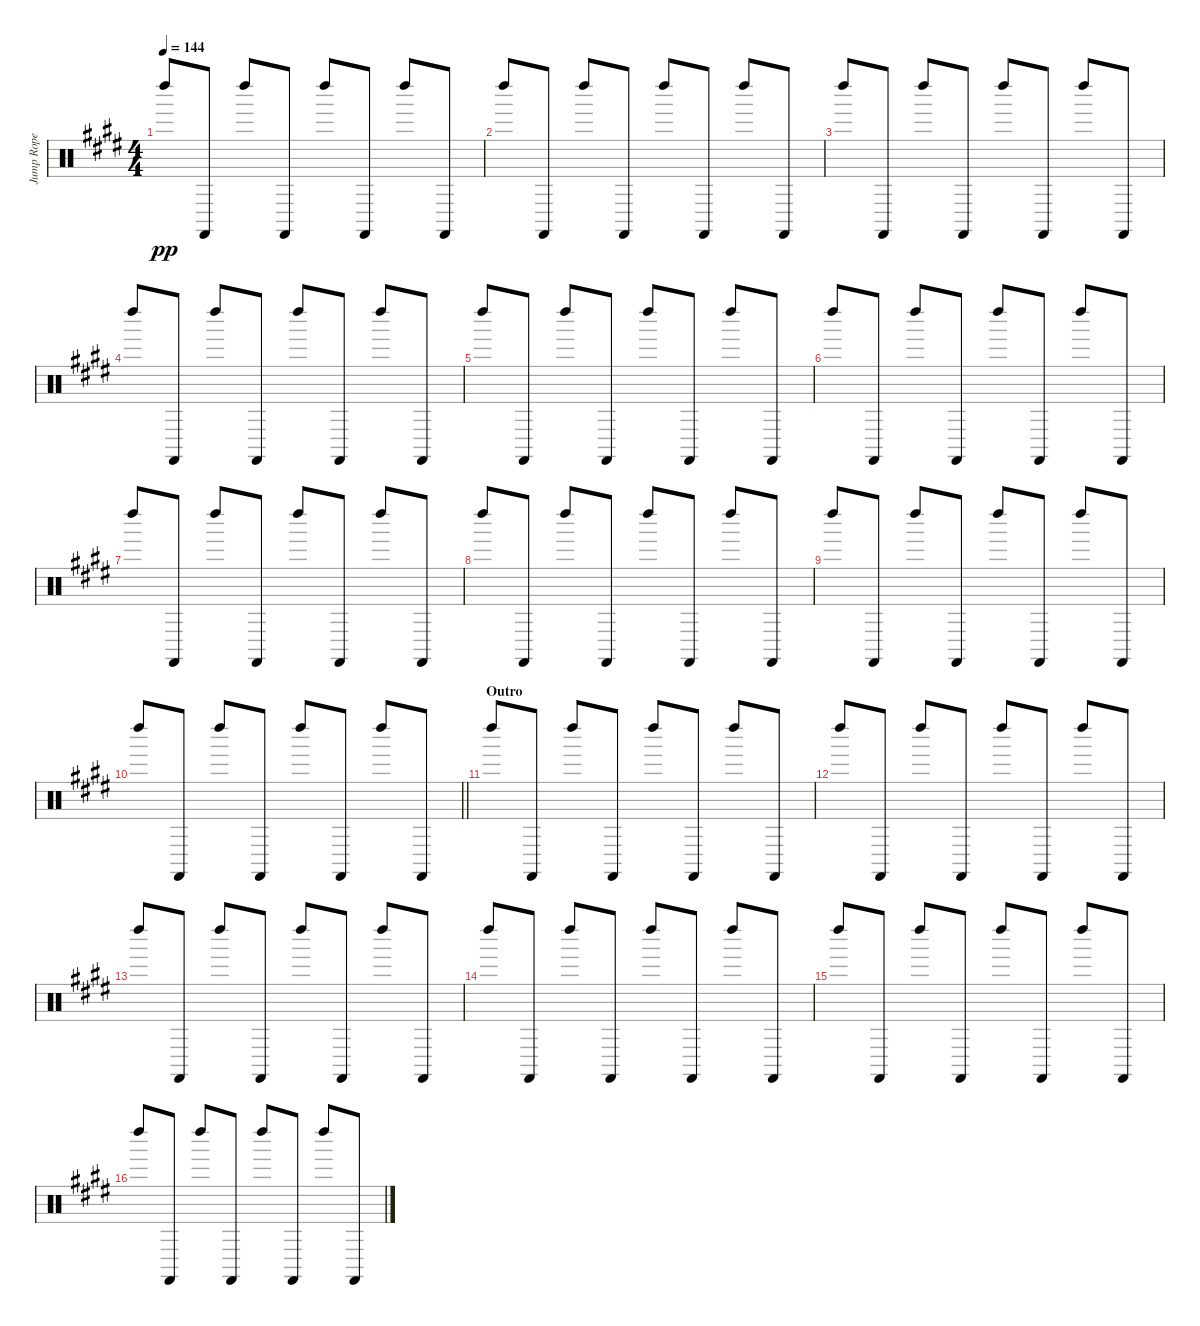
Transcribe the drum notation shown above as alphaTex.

\track ("Jump Rope" "Jump Rope") {instrument percussion}
\staff {score}
\articulation defaults
\ts (4 4)
\tempo 144
\clef neutral
\ks e "Left Maraca (hit)".8{dy pp} "Castanets (hit)".8 "Left Maraca (hit)".8 "Castanets (hit)".8 "Left Maraca (hit)".8 "Castanets (hit)".8 "Left Maraca (hit)".8 "Castanets (hit)".8
|
"Left Maraca (hit)".8 "Castanets (hit)".8 "Left Maraca (hit)".8 "Castanets (hit)".8 "Left Maraca (hit)".8 "Castanets (hit)".8 "Left Maraca (hit)".8 "Castanets (hit)".8 |
"Left Maraca (hit)".8 "Castanets (hit)".8 "Left Maraca (hit)".8 "Castanets (hit)".8 "Left Maraca (hit)".8 "Castanets (hit)".8 "Left Maraca (hit)".8 "Castanets (hit)".8 |
"Left Maraca (hit)".8 "Castanets (hit)".8 "Left Maraca (hit)".8 "Castanets (hit)".8 "Left Maraca (hit)".8 "Castanets (hit)".8 "Left Maraca (hit)".8 "Castanets (hit)".8 |
"Left Maraca (hit)".8 "Castanets (hit)".8 "Left Maraca (hit)".8 "Castanets (hit)".8 "Left Maraca (hit)".8 "Castanets (hit)".8 "Left Maraca (hit)".8 "Castanets (hit)".8 |
"Left Maraca (hit)".8 "Castanets (hit)".8 "Left Maraca (hit)".8 "Castanets (hit)".8 "Left Maraca (hit)".8 "Castanets (hit)".8 "Left Maraca (hit)".8 "Castanets (hit)".8 |
"Left Maraca (hit)".8 "Castanets (hit)".8 "Left Maraca (hit)".8 "Castanets (hit)".8 "Left Maraca (hit)".8 "Castanets (hit)".8 "Left Maraca (hit)".8 "Castanets (hit)".8 |
"Left Maraca (hit)".8 "Castanets (hit)".8 "Left Maraca (hit)".8 "Castanets (hit)".8 "Left Maraca (hit)".8 "Castanets (hit)".8 "Left Maraca (hit)".8 "Castanets (hit)".8 |
"Left Maraca (hit)".8 "Castanets (hit)".8 "Left Maraca (hit)".8 "Castanets (hit)".8 "Left Maraca (hit)".8 "Castanets (hit)".8 "Left Maraca (hit)".8 "Castanets (hit)".8 |
\barLineRight lightlight "Left Maraca (hit)".8 "Castanets (hit)".8 "Left Maraca (hit)".8 "Castanets (hit)".8 "Left Maraca (hit)".8 "Castanets (hit)".8 "Left Maraca (hit)".8 "Castanets (hit)".8
|
\section ("" "Outro")
"Left Maraca (hit)".8 "Castanets (hit)".8 "Left Maraca (hit)".8 "Castanets (hit)".8 "Left Maraca (hit)".8 "Castanets (hit)".8 "Left Maraca (hit)".8 "Castanets (hit)".8 |
"Left Maraca (hit)".8 "Castanets (hit)".8 "Left Maraca (hit)".8 "Castanets (hit)".8 "Left Maraca (hit)".8 "Castanets (hit)".8 "Left Maraca (hit)".8 "Castanets (hit)".8 |
"Left Maraca (hit)".8 "Castanets (hit)".8 "Left Maraca (hit)".8 "Castanets (hit)".8 "Left Maraca (hit)".8 "Castanets (hit)".8 "Left Maraca (hit)".8 "Castanets (hit)".8 |
"Left Maraca (hit)".8 "Castanets (hit)".8 "Left Maraca (hit)".8 "Castanets (hit)".8 "Left Maraca (hit)".8 "Castanets (hit)".8 "Left Maraca (hit)".8 "Castanets (hit)".8 |
"Left Maraca (hit)".8 "Castanets (hit)".8 "Left Maraca (hit)".8 "Castanets (hit)".8 "Left Maraca (hit)".8 "Castanets (hit)".8 "Left Maraca (hit)".8 "Castanets (hit)".8 |
"Left Maraca (hit)".8 "Castanets (hit)".8 "Left Maraca (hit)".8 "Castanets (hit)".8 "Left Maraca (hit)".8 "Castanets (hit)".8 "Left Maraca (hit)".8 "Castanets (hit)".8
